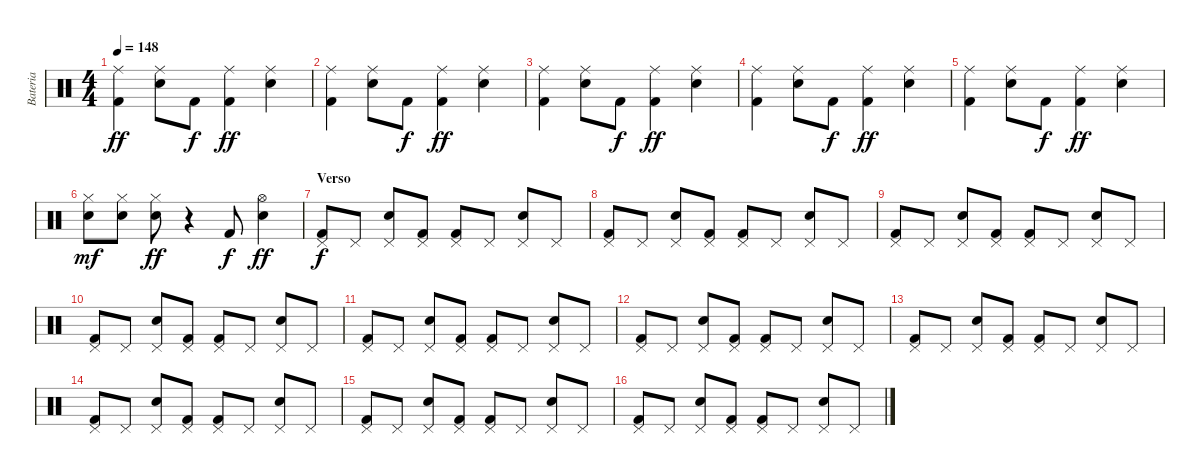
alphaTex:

\track ("Bateria" "Bateria") {instrument percussion}
\staff {score}
\articulation defaults
\ts (4 4)
\tempo 148
\clef neutral
\ks c
("Ride (middle)" "Kick (hit) 2").4{dy ff} ("Ride (middle)" "Snare (hit) 2").8 "Kick (hit) 2".8{dy f} ("Ride (middle)" "Kick (hit) 2").4{dy ff} ("Ride (middle)" "Snare (hit) 2").4 |
("Ride (middle)" "Kick (hit) 2").4 ("Ride (middle)" "Snare (hit) 2").8 "Kick (hit) 2".8{dy f} ("Ride (middle)" "Kick (hit) 2").4{dy ff} ("Ride (middle)" "Snare (hit) 2").4 |
("Ride (middle)" "Kick (hit) 2").4 ("Ride (middle)" "Snare (hit) 2").8 "Kick (hit) 2".8{dy f} ("Ride (middle)" "Kick (hit) 2").4{dy ff} ("Ride (middle)" "Snare (hit) 2").4 |
("Ride (middle)" "Kick (hit) 2").4 ("Ride (middle)" "Snare (hit) 2").8 "Kick (hit) 2".8{dy f} ("Ride (middle)" "Kick (hit) 2").4{dy ff} ("Ride (middle)" "Snare (hit) 2").4 |
("Ride (middle)" "Kick (hit) 2").4 ("Ride (middle)" "Snare (hit) 2").8 "Kick (hit) 2".8{dy f} ("Ride (middle)" "Kick (hit) 2").4{dy ff} ("Ride (middle)" "Snare (hit) 2").4 |
("Hi-Hat (closed)" "Snare (hit) 2").8{dy mf} ("Hi-Hat (closed)" "Snare (hit) 2").8 ("Hi-Hat (closed)" "Snare (hit) 2").8{dy ff} r.4 "Kick (hit) 2".8{dy f} ("Hi-Hat (open)" "Snare (hit) 2").4{dy ff} |
\section ("" "Verso")
("Pedal Hi-Hat (hit)" "Kick (hit) 2").8{dy f} "Pedal Hi-Hat (hit)".8 ("Pedal Hi-Hat (hit)" "Snare (hit) 2").8 ("Pedal Hi-Hat (hit)" "Kick (hit) 2").8 ("Pedal Hi-Hat (hit)" "Kick (hit) 2").8 "Pedal Hi-Hat (hit)".8 ("Pedal Hi-Hat (hit)" "Snare (hit) 2").8 "Pedal Hi-Hat (hit)".8 |
("Pedal Hi-Hat (hit)" "Kick (hit) 2").8 "Pedal Hi-Hat (hit)".8 ("Pedal Hi-Hat (hit)" "Snare (hit) 2").8 ("Pedal Hi-Hat (hit)" "Kick (hit) 2").8 ("Pedal Hi-Hat (hit)" "Kick (hit) 2").8 "Pedal Hi-Hat (hit)".8 ("Pedal Hi-Hat (hit)" "Snare (hit) 2").8 "Pedal Hi-Hat (hit)".8 |
("Pedal Hi-Hat (hit)" "Kick (hit) 2").8 "Pedal Hi-Hat (hit)".8 ("Pedal Hi-Hat (hit)" "Snare (hit) 2").8 ("Pedal Hi-Hat (hit)" "Kick (hit) 2").8 ("Pedal Hi-Hat (hit)" "Kick (hit) 2").8 "Pedal Hi-Hat (hit)".8 ("Pedal Hi-Hat (hit)" "Snare (hit) 2").8 "Pedal Hi-Hat (hit)".8 |
("Pedal Hi-Hat (hit)" "Kick (hit) 2").8 "Pedal Hi-Hat (hit)".8 ("Pedal Hi-Hat (hit)" "Snare (hit) 2").8 ("Pedal Hi-Hat (hit)" "Kick (hit) 2").8 ("Pedal Hi-Hat (hit)" "Kick (hit) 2").8 "Pedal Hi-Hat (hit)".8 ("Pedal Hi-Hat (hit)" "Snare (hit) 2").8 "Pedal Hi-Hat (hit)".8 |
("Pedal Hi-Hat (hit)" "Kick (hit) 2").8 "Pedal Hi-Hat (hit)".8 ("Pedal Hi-Hat (hit)" "Snare (hit) 2").8 ("Pedal Hi-Hat (hit)" "Kick (hit) 2").8 ("Pedal Hi-Hat (hit)" "Kick (hit) 2").8 "Pedal Hi-Hat (hit)".8 ("Pedal Hi-Hat (hit)" "Snare (hit) 2").8 "Pedal Hi-Hat (hit)".8 |
("Pedal Hi-Hat (hit)" "Kick (hit) 2").8 "Pedal Hi-Hat (hit)".8 ("Pedal Hi-Hat (hit)" "Snare (hit) 2").8 ("Pedal Hi-Hat (hit)" "Kick (hit) 2").8 ("Pedal Hi-Hat (hit)" "Kick (hit) 2").8 "Pedal Hi-Hat (hit)".8 ("Pedal Hi-Hat (hit)" "Snare (hit) 2").8 "Pedal Hi-Hat (hit)".8 |
("Pedal Hi-Hat (hit)" "Kick (hit) 2").8 "Pedal Hi-Hat (hit)".8 ("Pedal Hi-Hat (hit)" "Snare (hit) 2").8 ("Pedal Hi-Hat (hit)" "Kick (hit) 2").8 ("Pedal Hi-Hat (hit)" "Kick (hit) 2").8 "Pedal Hi-Hat (hit)".8 ("Pedal Hi-Hat (hit)" "Snare (hit) 2").8 "Pedal Hi-Hat (hit)".8 |
("Pedal Hi-Hat (hit)" "Kick (hit) 2").8 "Pedal Hi-Hat (hit)".8 ("Pedal Hi-Hat (hit)" "Snare (hit) 2").8 ("Pedal Hi-Hat (hit)" "Kick (hit) 2").8 ("Pedal Hi-Hat (hit)" "Kick (hit) 2").8 "Pedal Hi-Hat (hit)".8 ("Pedal Hi-Hat (hit)" "Snare (hit) 2").8 "Pedal Hi-Hat (hit)".8 |
("Pedal Hi-Hat (hit)" "Kick (hit) 2").8 "Pedal Hi-Hat (hit)".8 ("Pedal Hi-Hat (hit)" "Snare (hit) 2").8 ("Pedal Hi-Hat (hit)" "Kick (hit) 2").8 ("Pedal Hi-Hat (hit)" "Kick (hit) 2").8 "Pedal Hi-Hat (hit)".8 ("Pedal Hi-Hat (hit)" "Snare (hit) 2").8 "Pedal Hi-Hat (hit)".8 |
("Pedal Hi-Hat (hit)" "Kick (hit) 2").8 "Pedal Hi-Hat (hit)".8 ("Pedal Hi-Hat (hit)" "Snare (hit) 2").8 ("Pedal Hi-Hat (hit)" "Kick (hit) 2").8 ("Pedal Hi-Hat (hit)" "Kick (hit) 2").8 "Pedal Hi-Hat (hit)".8 ("Pedal Hi-Hat (hit)" "Snare (hit) 2").8 "Pedal Hi-Hat (hit)".8
